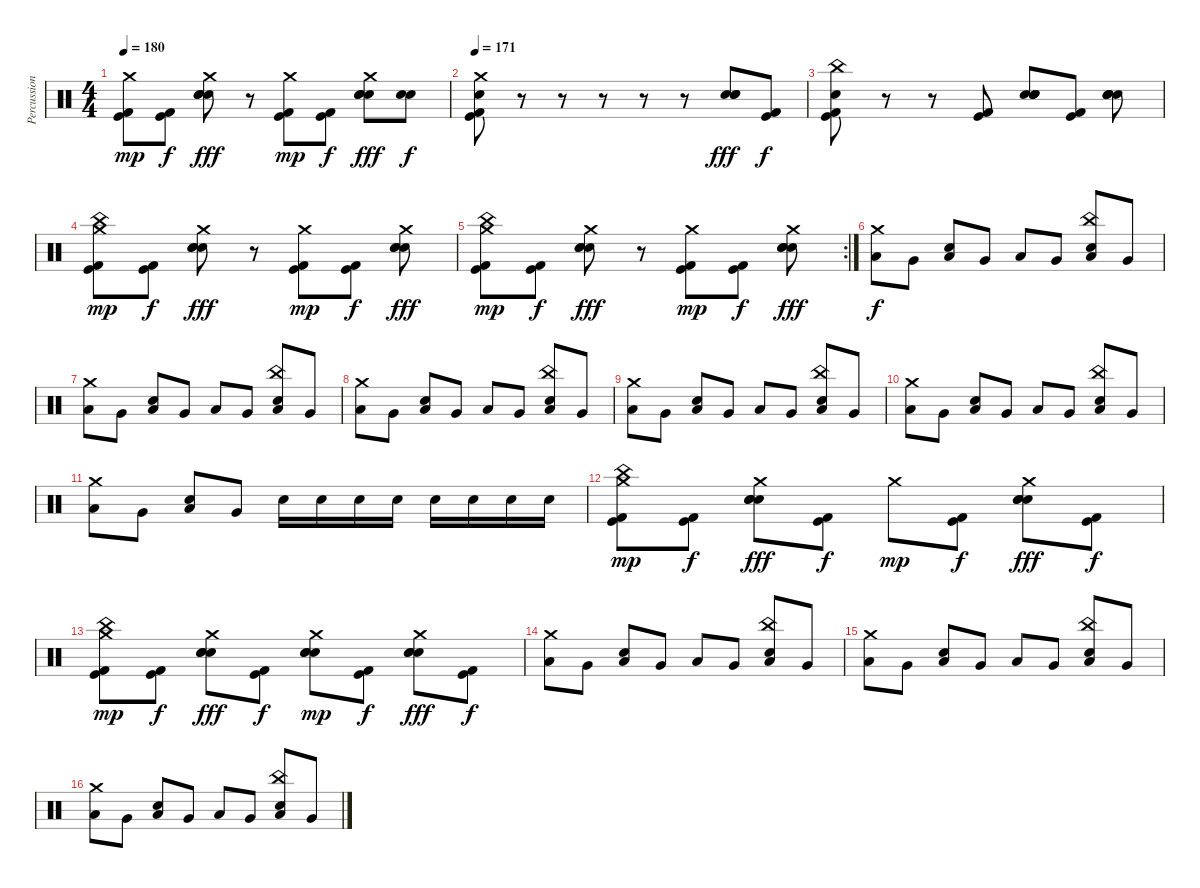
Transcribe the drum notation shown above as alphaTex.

\track ("Percussion" "Percussion") {instrument percussion}
\staff {score}
\articulation defaults
\ts (4 4)
\tempo 180
\clef neutral
\ks c
("Crash medium (hit)" "Kick (hit)" "Kick (hit) 2").8{dy mp} ("Kick (hit)" "Kick (hit) 2").8{dy f} ("Crash medium (hit)" "Electric Snare (hit)" "Electric Snare (hit)" "Electric Snare (hit)").8{dy fff} r.8 ("Crash medium (hit)" "Kick (hit)" "Kick (hit) 2").8{dy mp} ("Kick (hit)" "Kick (hit) 2").8{dy f} ("Crash medium (hit)" "Electric Snare (hit)" "Electric Snare (hit)" "Electric Snare (hit)").8{dy fff} ("Electric Snare (hit)" "Electric Snare (hit)").8{dy f} |
\tempo 171
("Crash medium (hit)" "Kick (hit)" "Electric Snare (hit)" "Kick (hit) 2").8 r.8 r.8 r.8 r.8 r.8 ("Electric Snare (hit)" "Electric Snare (hit)" "Electric Snare (hit)").8{dy fff} ("Kick (hit)" "Kick (hit) 2").8{dy f} |
("China (hit)" "Electric Snare (hit)" "Kick (hit)" "Kick (hit) 2").8 r.8 r.8 ("Kick (hit)" "Kick (hit) 2").8 ("Electric Snare (hit)" "Electric Snare (hit)" "Electric Snare (hit)" "Electric Snare (hit)").8 ("Kick (hit)" "Kick (hit) 2").8 ("Electric Snare (hit)" "Electric Snare (hit)" "Electric Snare (hit)" "Electric Snare (hit)").8 |
("China (hit)" "Crash medium (hit)" "Kick (hit)" "Kick (hit) 2").8{dy mp} ("Kick (hit)" "Kick (hit) 2").8{dy f} ("Crash medium (hit)" "Electric Snare (hit)" "Electric Snare (hit)" "Electric Snare (hit)").8{dy fff} r.8 ("Crash medium (hit)" "Kick (hit)" "Kick (hit) 2").8{dy mp} ("Kick (hit)" "Kick (hit) 2").8{dy f} ("Crash medium (hit)" "Electric Snare (hit)" "Electric Snare (hit)" "Electric Snare (hit)").8{dy fff} |
\rc 2
("China (hit)" "Crash medium (hit)" "Kick (hit)" "Kick (hit) 2").8{dy mp} ("Kick (hit)" "Kick (hit) 2").8{dy f} ("Crash medium (hit)" "Electric Snare (hit)" "Electric Snare (hit)" "Electric Snare (hit)").8{dy fff} r.8 ("Crash medium (hit)" "Kick (hit)" "Kick (hit) 2").8{dy mp} ("Kick (hit)" "Kick (hit) 2").8{dy f} ("Crash medium (hit)" "Electric Snare (hit)" "Electric Snare (hit)" "Electric Snare (hit)").8{dy fff} |
("Crash medium (hit)" "Low Tom (hit)").8{dy f} "Very Low Tom (hit)".8 ("Electric Snare (hit)" "Low Floor Tom (hit)").8 "Very Low Tom (hit)".8 "Low Tom (hit)".8 "Very Low Tom (hit)".8 ("China (hit)" "Electric Snare (hit)" "Low Floor Tom (hit)").8 "Very Low Tom (hit)".8 |
("Crash medium (hit)" "Low Tom (hit)").8 "Very Low Tom (hit)".8 ("Electric Snare (hit)" "Low Floor Tom (hit)").8 "Very Low Tom (hit)".8 "Low Tom (hit)".8 "Very Low Tom (hit)".8 ("China (hit)" "Electric Snare (hit)" "Low Floor Tom (hit)").8 "Very Low Tom (hit)".8 |
("Crash medium (hit)" "Low Tom (hit)").8 "Very Low Tom (hit)".8 ("Electric Snare (hit)" "Low Floor Tom (hit)").8 "Very Low Tom (hit)".8 "Low Tom (hit)".8 "Very Low Tom (hit)".8 ("China (hit)" "Electric Snare (hit)" "Low Floor Tom (hit)").8 "Very Low Tom (hit)".8 |
("Crash medium (hit)" "Low Tom (hit)").8 "Very Low Tom (hit)".8 ("Electric Snare (hit)" "Low Floor Tom (hit)").8 "Very Low Tom (hit)".8 "Low Tom (hit)".8 "Very Low Tom (hit)".8 ("China (hit)" "Electric Snare (hit)" "Low Floor Tom (hit)").8 "Very Low Tom (hit)".8 |
("Crash medium (hit)" "Low Tom (hit)").8 "Very Low Tom (hit)".8 ("Electric Snare (hit)" "Low Floor Tom (hit)").8 "Very Low Tom (hit)".8 "Low Tom (hit)".8 "Very Low Tom (hit)".8 ("China (hit)" "Electric Snare (hit)" "Low Floor Tom (hit)").8 "Very Low Tom (hit)".8 |
("Crash medium (hit)" "Low Tom (hit)").8 "Very Low Tom (hit)".8 ("Electric Snare (hit)" "Low Floor Tom (hit)").8 "Very Low Tom (hit)".8 "Electric Snare (hit)".16 "Electric Snare (hit)".16 "Electric Snare (hit)".16 "Electric Snare (hit)".16 "Electric Snare (hit)".16 "Electric Snare (hit)".16 "Electric Snare (hit)".16 "Electric Snare (hit)".16 |
("China (hit)" "Crash medium (hit)" "Kick (hit)" "Kick (hit) 2").8{dy mp} ("Kick (hit)" "Kick (hit) 2").8{dy f} ("Crash medium (hit)" "Electric Snare (hit)" "Electric Snare (hit)" "Electric Snare (hit)").8{dy fff} ("Kick (hit)" "Kick (hit) 2").8{dy f} "Crash medium (hit)".8{dy mp} ("Kick (hit)" "Kick (hit) 2").8{dy f} ("Crash medium (hit)" "Electric Snare (hit)" "Electric Snare (hit)" "Electric Snare (hit)").8{dy fff} ("Kick (hit)" "Kick (hit) 2").8{dy f} |
("China (hit)" "Crash medium (hit)" "Kick (hit)" "Kick (hit) 2").8{dy mp} ("Kick (hit)" "Kick (hit) 2").8{dy f} ("Crash medium (hit)" "Electric Snare (hit)" "Electric Snare (hit)" "Electric Snare (hit)").8{dy fff} ("Kick (hit)" "Kick (hit) 2").8{dy f} ("Crash medium (hit)" "Electric Snare (hit)" "Electric Snare (hit)" "Electric Snare (hit)").8{dy mp} ("Kick (hit)" "Kick (hit) 2").8{dy f} ("Crash medium (hit)" "Electric Snare (hit)" "Electric Snare (hit)" "Electric Snare (hit)").8{dy fff} ("Kick (hit)" "Kick (hit) 2").8{dy f} |
("Crash medium (hit)" "Low Tom (hit)").8 "Very Low Tom (hit)".8 ("Electric Snare (hit)" "Low Floor Tom (hit)").8 "Very Low Tom (hit)".8 "Low Tom (hit)".8 "Very Low Tom (hit)".8 ("China (hit)" "Electric Snare (hit)" "Low Floor Tom (hit)").8 "Very Low Tom (hit)".8 |
("Crash medium (hit)" "Low Tom (hit)").8 "Very Low Tom (hit)".8 ("Electric Snare (hit)" "Low Floor Tom (hit)").8 "Very Low Tom (hit)".8 "Low Tom (hit)".8 "Very Low Tom (hit)".8 ("China (hit)" "Electric Snare (hit)" "Low Floor Tom (hit)").8 "Very Low Tom (hit)".8 |
("Crash medium (hit)" "Low Tom (hit)").8 "Very Low Tom (hit)".8 ("Electric Snare (hit)" "Low Floor Tom (hit)").8 "Very Low Tom (hit)".8 "Low Tom (hit)".8 "Very Low Tom (hit)".8 ("China (hit)" "Electric Snare (hit)" "Low Floor Tom (hit)").8 "Very Low Tom (hit)".8
